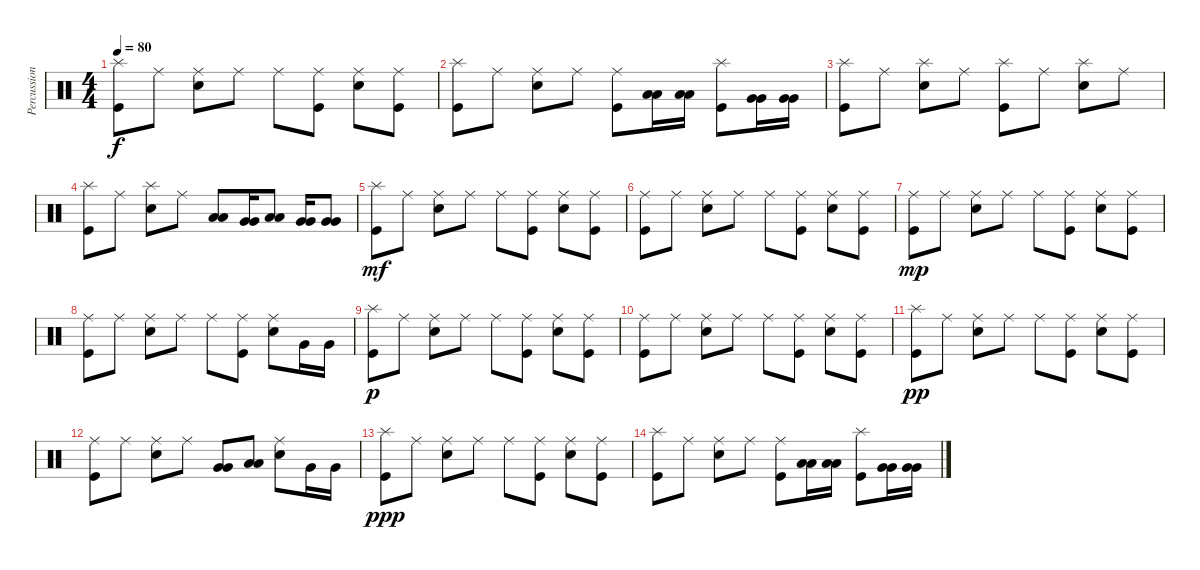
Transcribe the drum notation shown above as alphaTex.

\track ("Percussions" "Percussion") {instrument percussion}
\staff {score}
\articulation defaults
\ts (4 4)
\tempo 80
\clef neutral
\ks c
("Splash (hit)" "Kick (hit)").8{dy f} "Ride (middle)".8 ("Ride (middle)" "Snare (hit) 2").8 "Ride (middle)".8 "Ride (middle)".8 ("Ride (middle)" "Kick (hit)").8 ("Ride (middle)" "Snare (hit) 2").8 ("Ride (middle)" "Kick (hit)").8 |
("Splash (hit)" "Kick (hit)").8 "Ride (middle)".8 ("Ride (middle)" "Snare (hit) 2").8 "Ride (middle)".8 ("Ride (middle)" "Kick (hit)").8 ("Low Tom (hit)" "Low Tom (hit)").16 ("Low Tom (hit)" "Low Tom (hit)").16 ("Splash (hit)" "Kick (hit)").8 ("Very Low Tom (hit)" "Very Low Tom (hit)").16 ("Very Low Tom (hit)" "Very Low Tom (hit)").16 |
("Splash (hit)" "Kick (hit)").8 "Ride (middle)".8 ("Splash (hit)" "Snare (hit) 2").8 "Ride (middle)".8 ("Splash (hit)" "Kick (hit)").8 "Ride (middle)".8 ("Splash (hit)" "Snare (hit) 2").8 "Ride (middle)".8 |
("Splash (hit)" "Kick (hit)").8 "Ride (middle)".8 ("Splash (hit)" "Snare (hit) 2").8 "Ride (middle)".8 ("Low Tom (hit)" "Low Tom (hit)").8 ("Very Low Tom (hit)" "Very Low Tom (hit)").16 ("Low Tom (hit)" "Low Tom (hit)").8 ("Very Low Tom (hit)" "Very Low Tom (hit)").16 ("Very Low Tom (hit)" "Very Low Tom (hit)").8 |
("Splash (hit)" "Kick (hit)").8{dy mf} "Ride (middle)".8 ("Ride (middle)" "Snare (hit) 2").8 "Ride (middle)".8 "Ride (middle)".8 ("Ride (middle)" "Kick (hit)").8 ("Ride (middle)" "Snare (hit) 2").8 ("Ride (middle)" "Kick (hit)").8 |
("Ride (middle)" "Kick (hit)").8 "Ride (middle)".8 ("Ride (middle)" "Snare (hit) 2").8 "Ride (middle)".8 "Ride (middle)".8 ("Ride (middle)" "Kick (hit)").8 ("Ride (middle)" "Snare (hit) 2").8 ("Ride (middle)" "Kick (hit)").8 |
("Ride (middle)" "Kick (hit)").8{dy mp} "Ride (middle)".8 ("Ride (middle)" "Snare (hit) 2").8 "Ride (middle)".8 "Ride (middle)".8 ("Ride (middle)" "Kick (hit)").8 ("Ride (middle)" "Snare (hit) 2").8 ("Ride (middle)" "Kick (hit)").8 |
("Ride (middle)" "Kick (hit)").8 "Ride (middle)".8 ("Ride (middle)" "Snare (hit) 2").8 "Ride (middle)".8 "Ride (middle)".8 ("Ride (middle)" "Kick (hit)").8 ("Ride (middle)" "Snare (hit) 2").8 "Very Low Tom (hit)".16 "Very Low Tom (hit)".16 |
("Splash (hit)" "Kick (hit)").8{dy p} "Ride (middle)".8 ("Ride (middle)" "Snare (hit) 2").8 "Ride (middle)".8 "Ride (middle)".8 ("Ride (middle)" "Kick (hit)").8 ("Ride (middle)" "Snare (hit) 2").8 ("Ride (middle)" "Kick (hit)").8 |
("Ride (middle)" "Kick (hit)").8 "Ride (middle)".8 ("Ride (middle)" "Snare (hit) 2").8 "Ride (middle)".8 "Ride (middle)".8 ("Ride (middle)" "Kick (hit)").8 ("Ride (middle)" "Snare (hit) 2").8 ("Ride (middle)" "Kick (hit)").8 |
("Splash (hit)" "Kick (hit)").8{dy pp} "Ride (middle)".8 ("Ride (middle)" "Snare (hit) 2").8 "Ride (middle)".8 "Ride (middle)".8 ("Ride (middle)" "Kick (hit)").8 ("Ride (middle)" "Snare (hit) 2").8 ("Ride (middle)" "Kick (hit)").8 |
("Ride (middle)" "Kick (hit)").8 "Ride (middle)".8 ("Ride (middle)" "Snare (hit) 2").8 "Ride (middle)".8 ("Very Low Tom (hit)" "Very Low Tom (hit)").8 ("Low Tom (hit)" "Low Tom (hit)").8 ("Ride (middle)" "Snare (hit) 2").8 "Very Low Tom (hit)".16 "Very Low Tom (hit)".16 |
("Splash (hit)" "Kick (hit)").8{dy ppp} "Ride (middle)".8 ("Ride (middle)" "Snare (hit) 2").8 "Ride (middle)".8 "Ride (middle)".8 ("Ride (middle)" "Kick (hit)").8 ("Ride (middle)" "Snare (hit) 2").8 ("Ride (middle)" "Kick (hit)").8 |
("Splash (hit)" "Kick (hit)").8 "Ride (middle)".8 ("Ride (middle)" "Snare (hit) 2").8 "Ride (middle)".8 ("Ride (middle)" "Kick (hit)").8 ("Low Tom (hit)" "Low Tom (hit)").16 ("Low Tom (hit)" "Low Tom (hit)").16 ("Splash (hit)" "Kick (hit)").8 ("Very Low Tom (hit)" "Very Low Tom (hit)").16 ("Very Low Tom (hit)" "Very Low Tom (hit)").16
